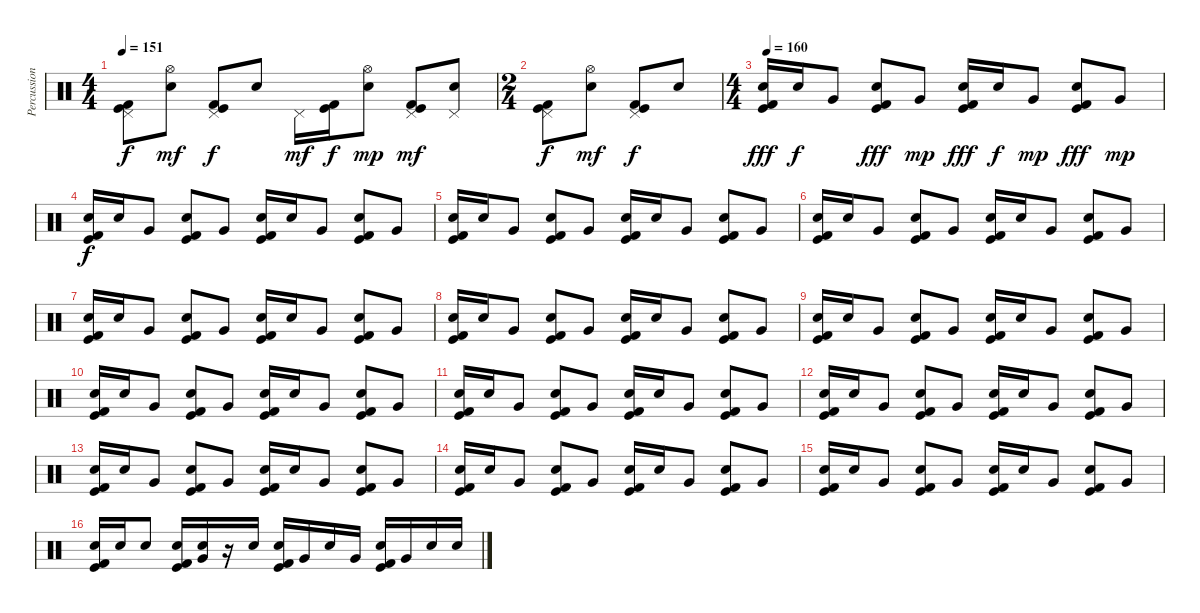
\track ("Percussions" "Percussion") {instrument percussion}
\staff {score}
\articulation defaults
\ts (4 4)
\tempo 151
\clef neutral
\ks c
("Pedal Hi-Hat (hit)" "Kick (hit)" "Kick (hit) 2").8{dy f} ("Hi-Hat (open)" "Electric Snare (hit)").8{dy mf} ("Pedal Hi-Hat (hit)" "Kick (hit)" "Kick (hit) 2").8{dy f} "Electric Snare (hit)".8 "Pedal Hi-Hat (hit)".16{dy mf} ("Kick (hit)" "Kick (hit) 2").16{dy f} ("Hi-Hat (open)" "Electric Snare (hit)").8{dy mp} ("Pedal Hi-Hat (hit)" "Kick (hit)" "Kick (hit) 2").8{dy mf} ("Pedal Hi-Hat (hit)" "Electric Snare (hit)").8 |
\ts (2 4)
("Pedal Hi-Hat (hit)" "Kick (hit)" "Kick (hit) 2").8{dy f} ("Hi-Hat (open)" "Electric Snare (hit)").8{dy mf} ("Pedal Hi-Hat (hit)" "Kick (hit)" "Kick (hit) 2").8{dy f} "Electric Snare (hit)".8 |
\ts (4 4)
\tempo 160
("Electric Snare (hit)" "Kick (hit)" "Kick (hit) 2").16{dy fff} "Electric Snare (hit)".16{dy f} "Very Low Tom (hit)".8 ("Electric Snare (hit)" "Kick (hit)" "Kick (hit) 2").8{dy fff} "Very Low Tom (hit)".8{dy mp} ("Electric Snare (hit)" "Kick (hit)" "Kick (hit) 2").16{dy fff} "Electric Snare (hit)".16{dy f} "Very Low Tom (hit)".8{dy mp} ("Electric Snare (hit)" "Kick (hit)" "Kick (hit) 2").8{dy fff} "Very Low Tom (hit)".8{dy mp} |
("Electric Snare (hit)" "Kick (hit)" "Kick (hit) 2").16{dy f} "Electric Snare (hit)".16 "Very Low Tom (hit)".8 ("Electric Snare (hit)" "Kick (hit)" "Kick (hit) 2").8 "Very Low Tom (hit)".8 ("Electric Snare (hit)" "Kick (hit)" "Kick (hit) 2").16 "Electric Snare (hit)".16 "Very Low Tom (hit)".8 ("Electric Snare (hit)" "Kick (hit)" "Kick (hit) 2").8 "Very Low Tom (hit)".8 |
("Electric Snare (hit)" "Kick (hit)" "Kick (hit) 2").16 "Electric Snare (hit)".16 "Very Low Tom (hit)".8 ("Electric Snare (hit)" "Kick (hit)" "Kick (hit) 2").8 "Very Low Tom (hit)".8 ("Electric Snare (hit)" "Kick (hit)" "Kick (hit) 2").16 "Electric Snare (hit)".16 "Very Low Tom (hit)".8 ("Electric Snare (hit)" "Kick (hit)" "Kick (hit) 2").8 "Very Low Tom (hit)".8 |
("Electric Snare (hit)" "Kick (hit)" "Kick (hit) 2").16 "Electric Snare (hit)".16 "Very Low Tom (hit)".8 ("Electric Snare (hit)" "Kick (hit)" "Kick (hit) 2").8 "Very Low Tom (hit)".8 ("Electric Snare (hit)" "Kick (hit)" "Kick (hit) 2").16 "Electric Snare (hit)".16 "Very Low Tom (hit)".8 ("Electric Snare (hit)" "Kick (hit)" "Kick (hit) 2").8 "Very Low Tom (hit)".8 |
("Electric Snare (hit)" "Kick (hit)" "Kick (hit) 2").16 "Electric Snare (hit)".16 "Very Low Tom (hit)".8 ("Electric Snare (hit)" "Kick (hit)" "Kick (hit) 2").8 "Very Low Tom (hit)".8 ("Electric Snare (hit)" "Kick (hit)" "Kick (hit) 2").16 "Electric Snare (hit)".16 "Very Low Tom (hit)".8 ("Electric Snare (hit)" "Kick (hit)" "Kick (hit) 2").8 "Very Low Tom (hit)".8 |
("Electric Snare (hit)" "Kick (hit)" "Kick (hit) 2").16 "Electric Snare (hit)".16 "Very Low Tom (hit)".8 ("Electric Snare (hit)" "Kick (hit)" "Kick (hit) 2").8 "Very Low Tom (hit)".8 ("Electric Snare (hit)" "Kick (hit)" "Kick (hit) 2").16 "Electric Snare (hit)".16 "Very Low Tom (hit)".8 ("Electric Snare (hit)" "Kick (hit)" "Kick (hit) 2").8 "Very Low Tom (hit)".8 |
("Electric Snare (hit)" "Kick (hit)" "Kick (hit) 2").16 "Electric Snare (hit)".16 "Very Low Tom (hit)".8 ("Electric Snare (hit)" "Kick (hit)" "Kick (hit) 2").8 "Very Low Tom (hit)".8 ("Electric Snare (hit)" "Kick (hit)" "Kick (hit) 2").16 "Electric Snare (hit)".16 "Very Low Tom (hit)".8 ("Electric Snare (hit)" "Kick (hit)" "Kick (hit) 2").8 "Very Low Tom (hit)".8 |
("Electric Snare (hit)" "Kick (hit)" "Kick (hit) 2").16 "Electric Snare (hit)".16 "Very Low Tom (hit)".8 ("Electric Snare (hit)" "Kick (hit)" "Kick (hit) 2").8 "Very Low Tom (hit)".8 ("Electric Snare (hit)" "Kick (hit)" "Kick (hit) 2").16 "Electric Snare (hit)".16 "Very Low Tom (hit)".8 ("Electric Snare (hit)" "Kick (hit)" "Kick (hit) 2").8 "Very Low Tom (hit)".8 |
("Electric Snare (hit)" "Kick (hit)" "Kick (hit) 2").16 "Electric Snare (hit)".16 "Very Low Tom (hit)".8 ("Electric Snare (hit)" "Kick (hit)" "Kick (hit) 2").8 "Very Low Tom (hit)".8 ("Electric Snare (hit)" "Kick (hit)" "Kick (hit) 2").16 "Electric Snare (hit)".16 "Very Low Tom (hit)".8 ("Electric Snare (hit)" "Kick (hit)" "Kick (hit) 2").8 "Very Low Tom (hit)".8 |
("Electric Snare (hit)" "Kick (hit)" "Kick (hit) 2").16 "Electric Snare (hit)".16 "Very Low Tom (hit)".8 ("Electric Snare (hit)" "Kick (hit)" "Kick (hit) 2").8 "Very Low Tom (hit)".8 ("Electric Snare (hit)" "Kick (hit)" "Kick (hit) 2").16 "Electric Snare (hit)".16 "Very Low Tom (hit)".8 ("Electric Snare (hit)" "Kick (hit)" "Kick (hit) 2").8 "Very Low Tom (hit)".8 |
("Electric Snare (hit)" "Kick (hit)" "Kick (hit) 2").16 "Electric Snare (hit)".16 "Very Low Tom (hit)".8 ("Electric Snare (hit)" "Kick (hit)" "Kick (hit) 2").8 "Very Low Tom (hit)".8 ("Electric Snare (hit)" "Kick (hit)" "Kick (hit) 2").16 "Electric Snare (hit)".16 "Very Low Tom (hit)".8 ("Electric Snare (hit)" "Kick (hit)" "Kick (hit) 2").8 "Very Low Tom (hit)".8 |
("Electric Snare (hit)" "Kick (hit)" "Kick (hit) 2").16 "Electric Snare (hit)".16 "Very Low Tom (hit)".8 ("Electric Snare (hit)" "Kick (hit)" "Kick (hit) 2").8 "Very Low Tom (hit)".8 ("Electric Snare (hit)" "Kick (hit)" "Kick (hit) 2").16 "Electric Snare (hit)".16 "Very Low Tom (hit)".8 ("Electric Snare (hit)" "Kick (hit)" "Kick (hit) 2").8 "Very Low Tom (hit)".8 |
("Electric Snare (hit)" "Kick (hit)" "Kick (hit) 2").16 "Electric Snare (hit)".16 "Very Low Tom (hit)".8 ("Electric Snare (hit)" "Kick (hit)" "Kick (hit) 2").8 "Very Low Tom (hit)".8 ("Electric Snare (hit)" "Kick (hit)" "Kick (hit) 2").16 "Electric Snare (hit)".16 "Very Low Tom (hit)".8 ("Electric Snare (hit)" "Kick (hit)" "Kick (hit) 2").8 "Very Low Tom (hit)".8 |
("Electric Snare (hit)" "Kick (hit)" "Kick (hit) 2").16 "Electric Snare (hit)".16 "Electric Snare (hit)".8 ("Electric Snare (hit)" "Kick (hit)" "Kick (hit) 2").16 ("Electric Snare (hit)" "Very Low Tom (hit)").16 r.16 "Electric Snare (hit)".16 ("Electric Snare (hit)" "Kick (hit)" "Kick (hit) 2").16 "Very Low Tom (hit)".16 "Electric Snare (hit)".16 "Very Low Tom (hit)".16 ("Electric Snare (hit)" "Kick (hit)" "Kick (hit) 2").16 "Very Low Tom (hit)".16 "Electric Snare (hit)".16 "Electric Snare (hit)".16
